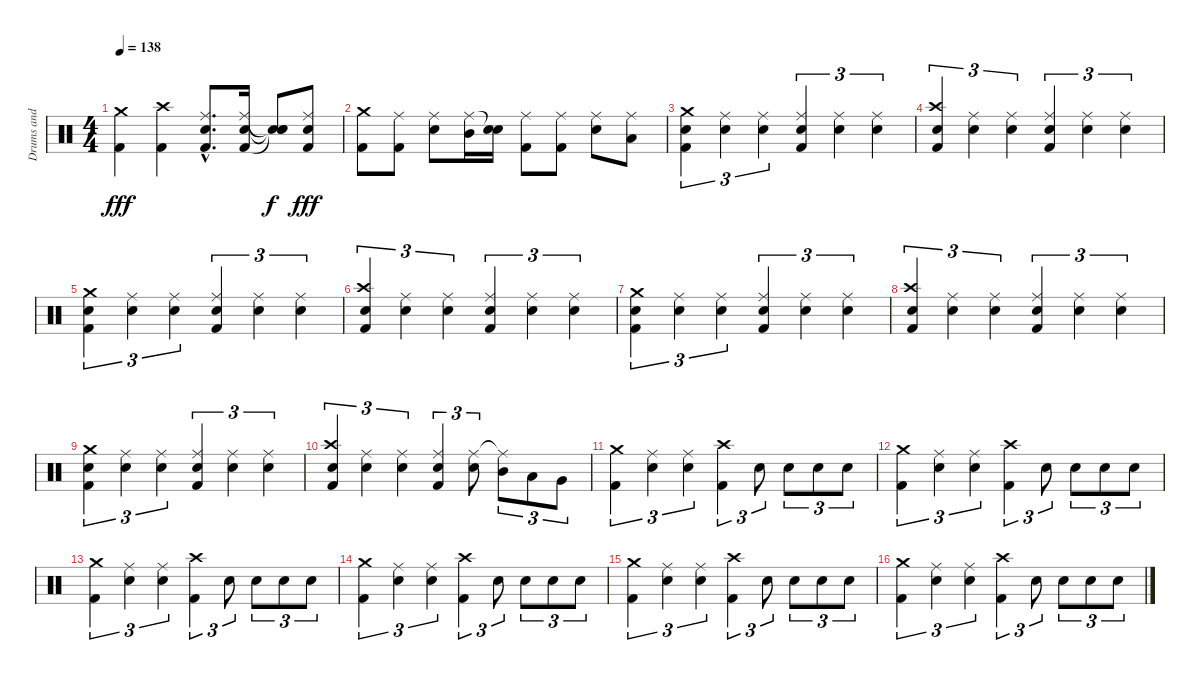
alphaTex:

\track ("Drums and Percussion" "Drums and ") {instrument percussion}
\staff {score}
\articulation defaults
\ts (4 4)
\tempo 138
\clef neutral
\ks c
("Crash medium (hit)" "Kick (hit) 2").4{dy fff} ("Crash high (hit)" "Kick (hit) 2").4 ("Ride (middle)"{hac} "Snare (hit) 2"{hac} "Kick (hit) 2"{hac}).8{d} ("Ride (middle)" "Snare (hit) 2" "Kick (hit) 2").16 ("Snare (hit)"{t} "Snare (hit)"{t} "Snare (hit)"{t}).8{dy f} ("Ride (middle)" "Snare (hit) 2" "Kick (hit) 2").8{dy fff} |
("Crash medium (hit)" "Kick (hit) 2").8 ("Ride (middle)" "Kick (hit) 2").8 ("Ride (middle)" "Snare (hit) 2").8 ("Ride (middle)" "Mid Tom (hit)").16 ("Snare (hit)"{t} "Snare (hit) 2").16 ("Ride (middle)" "Kick (hit) 2").8 ("Ride (middle)" "Kick (hit) 2").8 ("Ride (middle)" "Snare (hit) 2").8 ("Ride (middle)" "Low Tom (hit)").8 |
("Crash medium (hit)" "Snare (hit) 2" "Kick (hit) 2").4{tu (3 2)} ("Ride (middle)" "Snare (hit) 2").4{tu (3 2)} ("Ride (middle)" "Snare (hit) 2").4{tu (3 2)} ("Ride (middle)" "Snare (hit) 2" "Kick (hit) 2").4{tu (3 2)} ("Ride (middle)" "Snare (hit) 2").4{tu (3 2)} ("Ride (middle)" "Snare (hit) 2").4{tu (3 2)} |
("Crash high (hit)" "Snare (hit) 2" "Kick (hit) 2").4{tu (3 2)} ("Ride (middle)" "Snare (hit) 2").4{tu (3 2)} ("Ride (middle)" "Snare (hit) 2").4{tu (3 2)} ("Ride (middle)" "Snare (hit) 2" "Kick (hit) 2").4{tu (3 2)} ("Ride (middle)" "Snare (hit) 2").4{tu (3 2)} ("Ride (middle)" "Snare (hit) 2").4{tu (3 2)} |
("Crash medium (hit)" "Snare (hit) 2" "Kick (hit) 2").4{tu (3 2)} ("Ride (middle)" "Snare (hit) 2").4{tu (3 2)} ("Ride (middle)" "Snare (hit) 2").4{tu (3 2)} ("Ride (middle)" "Snare (hit) 2" "Kick (hit) 2").4{tu (3 2)} ("Ride (middle)" "Snare (hit) 2").4{tu (3 2)} ("Ride (middle)" "Snare (hit) 2").4{tu (3 2)} |
("Crash high (hit)" "Snare (hit) 2" "Kick (hit) 2").4{tu (3 2)} ("Ride (middle)" "Snare (hit) 2").4{tu (3 2)} ("Ride (middle)" "Snare (hit) 2").4{tu (3 2)} ("Ride (middle)" "Snare (hit) 2" "Kick (hit) 2").4{tu (3 2)} ("Ride (middle)" "Snare (hit) 2").4{tu (3 2)} ("Ride (middle)" "Snare (hit) 2").4{tu (3 2)} |
("Crash medium (hit)" "Snare (hit) 2" "Kick (hit) 2").4{tu (3 2)} ("Ride (middle)" "Snare (hit) 2").4{tu (3 2)} ("Ride (middle)" "Snare (hit) 2").4{tu (3 2)} ("Ride (middle)" "Snare (hit) 2" "Kick (hit) 2").4{tu (3 2)} ("Ride (middle)" "Snare (hit) 2").4{tu (3 2)} ("Ride (middle)" "Snare (hit) 2").4{tu (3 2)} |
("Crash high (hit)" "Snare (hit) 2" "Kick (hit) 2").4{tu (3 2)} ("Ride (middle)" "Snare (hit) 2").4{tu (3 2)} ("Ride (middle)" "Snare (hit) 2").4{tu (3 2)} ("Ride (middle)" "Snare (hit) 2" "Kick (hit) 2").4{tu (3 2)} ("Ride (middle)" "Snare (hit) 2").4{tu (3 2)} ("Ride (middle)" "Snare (hit) 2").4{tu (3 2)} |
("Crash medium (hit)" "Snare (hit) 2" "Kick (hit) 2").4{tu (3 2)} ("Ride (middle)" "Snare (hit) 2").4{tu (3 2)} ("Ride (middle)" "Snare (hit) 2").4{tu (3 2)} ("Ride (middle)" "Snare (hit) 2" "Kick (hit) 2").4{tu (3 2)} ("Ride (middle)" "Snare (hit) 2").4{tu (3 2)} ("Ride (middle)" "Snare (hit) 2").4{tu (3 2)} |
("Crash high (hit)" "Snare (hit) 2" "Kick (hit) 2").4{tu (3 2)} ("Ride (middle)" "Snare (hit) 2").4{tu (3 2)} ("Ride (middle)" "Snare (hit) 2").4{tu (3 2)} ("Ride (middle)" "Snare (hit) 2" "Kick (hit) 2").4{tu (3 2)} ("Ride (middle)" "Snare (hit) 2").8{tu (3 2)} ("Ride (middle)"{t} "Mid Tom (hit)").8{tu (3 2)} "Low Tom (hit)".8{tu (3 2)} "Very Low Tom (hit)".8{tu (3 2)} |
("Crash medium (hit)" "Kick (hit) 2").4{tu (3 2)} ("Ride (middle)" "Snare (hit) 2").4{tu (3 2)} ("Ride (middle)" "Snare (hit) 2").4{tu (3 2)} ("Crash high (hit)" "Kick (hit) 2").4{tu (3 2)} "Snare (hit) 2".8{tu (3 2)} "Snare (hit) 2".8{tu (3 2)} "Snare (hit) 2".8{tu (3 2)} "Snare (hit) 2".8{tu (3 2)} |
("Crash medium (hit)" "Kick (hit) 2").4{tu (3 2)} ("Ride (middle)" "Snare (hit) 2").4{tu (3 2)} ("Ride (middle)" "Snare (hit) 2").4{tu (3 2)} ("Crash high (hit)" "Kick (hit) 2").4{tu (3 2)} "Snare (hit) 2".8{tu (3 2)} "Snare (hit) 2".8{tu (3 2)} "Snare (hit) 2".8{tu (3 2)} "Snare (hit) 2".8{tu (3 2)} |
("Crash medium (hit)" "Kick (hit) 2").4{tu (3 2)} ("Ride (middle)" "Snare (hit) 2").4{tu (3 2)} ("Ride (middle)" "Snare (hit) 2").4{tu (3 2)} ("Crash high (hit)" "Kick (hit) 2").4{tu (3 2)} "Snare (hit) 2".8{tu (3 2)} "Snare (hit) 2".8{tu (3 2)} "Snare (hit) 2".8{tu (3 2)} "Snare (hit) 2".8{tu (3 2)} |
("Crash medium (hit)" "Kick (hit) 2").4{tu (3 2)} ("Ride (middle)" "Snare (hit) 2").4{tu (3 2)} ("Ride (middle)" "Snare (hit) 2").4{tu (3 2)} ("Crash high (hit)" "Kick (hit) 2").4{tu (3 2)} "Snare (hit) 2".8{tu (3 2)} "Snare (hit) 2".8{tu (3 2)} "Snare (hit) 2".8{tu (3 2)} "Snare (hit) 2".8{tu (3 2)} |
("Crash medium (hit)" "Kick (hit) 2").4{tu (3 2)} ("Ride (middle)" "Snare (hit) 2").4{tu (3 2)} ("Ride (middle)" "Snare (hit) 2").4{tu (3 2)} ("Crash high (hit)" "Kick (hit) 2").4{tu (3 2)} "Snare (hit) 2".8{tu (3 2)} "Snare (hit) 2".8{tu (3 2)} "Snare (hit) 2".8{tu (3 2)} "Snare (hit) 2".8{tu (3 2)} |
("Crash medium (hit)" "Kick (hit) 2").4{tu (3 2)} ("Ride (middle)" "Snare (hit) 2").4{tu (3 2)} ("Ride (middle)" "Snare (hit) 2").4{tu (3 2)} ("Crash high (hit)" "Kick (hit) 2").4{tu (3 2)} "Snare (hit) 2".8{tu (3 2)} "Snare (hit) 2".8{tu (3 2)} "Snare (hit) 2".8{tu (3 2)} "Snare (hit) 2".8{tu (3 2)}
